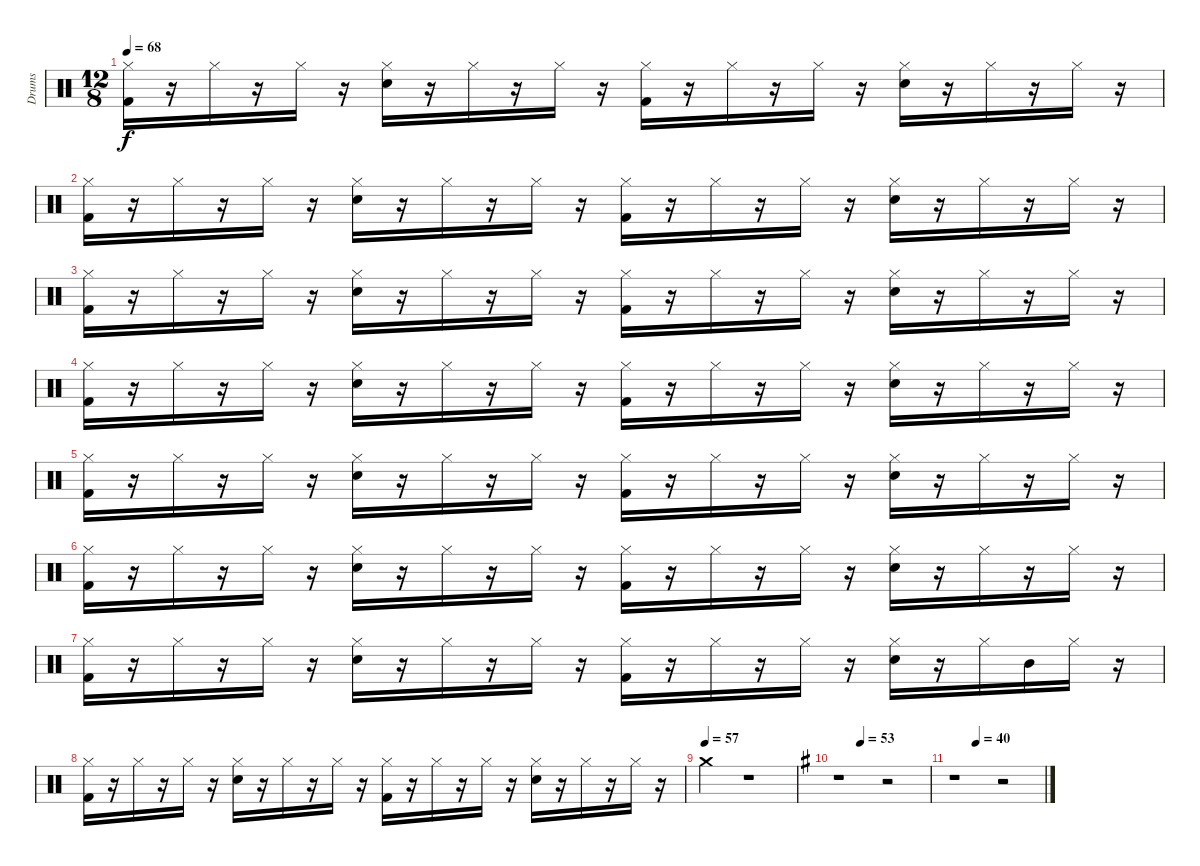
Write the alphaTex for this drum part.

\track ("Drums" "Drums") {instrument percussion}
\staff {score}
\articulation defaults
\ts (12 8)
\tempo 68
\clef neutral
\ks c
("Hi-Hat (closed)" "Kick (hit) 2").16{dy f} r.16 "Hi-Hat (closed)".16 r.16 "Hi-Hat (closed)".16 r.16 ("Hi-Hat (closed)" "Snare (hit) 2").16 r.16 "Hi-Hat (closed)".16 r.16 "Hi-Hat (closed)".16 r.16 ("Hi-Hat (closed)" "Kick (hit) 2").16 r.16 "Hi-Hat (closed)".16 r.16 "Hi-Hat (closed)".16 r.16 ("Hi-Hat (closed)" "Snare (hit) 2").16 r.16 "Hi-Hat (closed)".16 r.16 "Hi-Hat (closed)".16 r.16 |
("Hi-Hat (closed)" "Kick (hit) 2").16 r.16 "Hi-Hat (closed)".16 r.16 "Hi-Hat (closed)".16 r.16 ("Hi-Hat (closed)" "Snare (hit) 2").16 r.16 "Hi-Hat (closed)".16 r.16 "Hi-Hat (closed)".16 r.16 ("Hi-Hat (closed)" "Kick (hit) 2").16 r.16 "Hi-Hat (closed)".16 r.16 "Hi-Hat (closed)".16 r.16 ("Hi-Hat (closed)" "Snare (hit) 2").16 r.16 "Hi-Hat (closed)".16 r.16 "Hi-Hat (closed)".16 r.16 |
("Hi-Hat (closed)" "Kick (hit) 2").16 r.16 "Hi-Hat (closed)".16 r.16 "Hi-Hat (closed)".16 r.16 ("Hi-Hat (closed)" "Snare (hit) 2").16 r.16 "Hi-Hat (closed)".16 r.16 "Hi-Hat (closed)".16 r.16 ("Hi-Hat (closed)" "Kick (hit) 2").16 r.16 "Hi-Hat (closed)".16 r.16 "Hi-Hat (closed)".16 r.16 ("Hi-Hat (closed)" "Snare (hit) 2").16 r.16 "Hi-Hat (closed)".16 r.16 "Hi-Hat (closed)".16 r.16 |
("Hi-Hat (closed)" "Kick (hit) 2").16 r.16 "Hi-Hat (closed)".16 r.16 "Hi-Hat (closed)".16 r.16 ("Hi-Hat (closed)" "Snare (hit) 2").16 r.16 "Hi-Hat (closed)".16 r.16 "Hi-Hat (closed)".16 r.16 ("Hi-Hat (closed)" "Kick (hit) 2").16 r.16 "Hi-Hat (closed)".16 r.16 "Hi-Hat (closed)".16 r.16 ("Hi-Hat (closed)" "Snare (hit) 2").16 r.16 "Hi-Hat (closed)".16 r.16 "Hi-Hat (closed)".16 r.16 |
("Hi-Hat (closed)" "Kick (hit) 2").16 r.16 "Hi-Hat (closed)".16 r.16 "Hi-Hat (closed)".16 r.16 ("Hi-Hat (closed)" "Snare (hit) 2").16 r.16 "Hi-Hat (closed)".16 r.16 "Hi-Hat (closed)".16 r.16 ("Hi-Hat (closed)" "Kick (hit) 2").16 r.16 "Hi-Hat (closed)".16 r.16 "Hi-Hat (closed)".16 r.16 ("Hi-Hat (closed)" "Snare (hit) 2").16 r.16 "Hi-Hat (closed)".16 r.16 "Hi-Hat (closed)".16 r.16 |
("Hi-Hat (closed)" "Kick (hit) 2").16 r.16 "Hi-Hat (closed)".16 r.16 "Hi-Hat (closed)".16 r.16 ("Hi-Hat (closed)" "Snare (hit) 2").16 r.16 "Hi-Hat (closed)".16 r.16 "Hi-Hat (closed)".16 r.16 ("Hi-Hat (closed)" "Kick (hit) 2").16 r.16 "Hi-Hat (closed)".16 r.16 "Hi-Hat (closed)".16 r.16 ("Hi-Hat (closed)" "Snare (hit) 2").16 r.16 "Hi-Hat (closed)".16 r.16 "Hi-Hat (closed)".16 r.16 |
("Hi-Hat (closed)" "Kick (hit) 2").16 r.16 "Hi-Hat (closed)".16 r.16 "Hi-Hat (closed)".16 r.16 ("Hi-Hat (closed)" "Snare (hit) 2").16 r.16 "Hi-Hat (closed)".16 r.16 "Hi-Hat (closed)".16 r.16 ("Hi-Hat (closed)" "Kick (hit) 2").16 r.16 "Hi-Hat (closed)".16 r.16 "Hi-Hat (closed)".16 r.16 ("Hi-Hat (closed)" "Snare (hit) 2").16 r.16 "Hi-Hat (closed)".16 "Mid Tom (hit)".16 "Hi-Hat (closed)".16 r.16 |
("Hi-Hat (closed)" "Kick (hit) 2").16 r.16 "Hi-Hat (closed)".16 r.16 "Hi-Hat (closed)".16 r.16 ("Hi-Hat (closed)" "Snare (hit) 2").16 r.16 "Hi-Hat (closed)".16 r.16 "Hi-Hat (closed)".16 r.16 ("Hi-Hat (closed)" "Kick (hit) 2").16 r.16 "Hi-Hat (closed)".16 r.16 "Hi-Hat (closed)".16 r.16 ("Hi-Hat (closed)" "Snare (hit) 2").16 r.16 "Hi-Hat (closed)".16 r.16 "Hi-Hat (closed)".16 r.16 |
\tempo (57)
"Crash medium (hit)".2 r.1 |
\tempo (53 0.25)
\ks g
r.1 r.2 |
\tempo (40 0.25)
r.1 r.2
